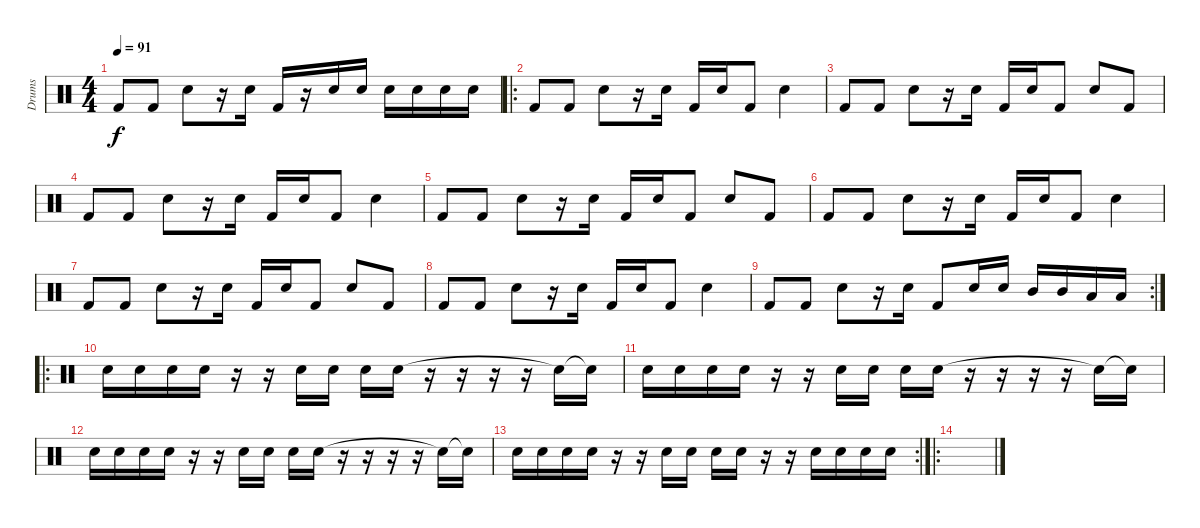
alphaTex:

\track ("Drums" "Drums") {instrument percussion}
\staff {score}
\articulation defaults
\ts (4 4)
\tempo 91
\clef neutral
\ks c "Kick (hit) 2".8{dy f} "Kick (hit) 2".8 "Snare (hit) 2".8
r.16 "Snare (hit) 2".16 "Kick (hit) 2".16 r.16 "Snare (hit) 2".16 "Snare (hit) 2".16 "Snare (hit) 2".16 "Snare (hit) 2".16 "Snare (hit) 2".16 "Snare (hit) 2".16 |
\ro "Kick (hit) 2".8 "Kick (hit) 2".8 "Snare (hit) 2".8
r.16 "Snare (hit) 2".16 "Kick (hit) 2".16 "Snare (hit) 2".16 "Kick (hit) 2".8 "Snare (hit) 2".4 |
"Kick (hit) 2".8 "Kick (hit) 2".8 "Snare (hit) 2".8 r.16 "Snare (hit) 2".16 "Kick (hit) 2".16 "Snare (hit) 2".16 "Kick (hit) 2".8 "Snare (hit) 2".8 "Kick (hit) 2".8 |
"Kick (hit) 2".8 "Kick (hit) 2".8 "Snare (hit) 2".8 r.16 "Snare (hit) 2".16 "Kick (hit) 2".16 "Snare (hit) 2".16 "Kick (hit) 2".8 "Snare (hit) 2".4 |
"Kick (hit) 2".8 "Kick (hit) 2".8 "Snare (hit) 2".8 r.16 "Snare (hit) 2".16 "Kick (hit) 2".16 "Snare (hit) 2".16 "Kick (hit) 2".8 "Snare (hit) 2".8 "Kick (hit) 2".8 |
"Kick (hit) 2".8 "Kick (hit) 2".8 "Snare (hit) 2".8 r.16 "Snare (hit) 2".16 "Kick (hit) 2".16 "Snare (hit) 2".16 "Kick (hit) 2".8 "Snare (hit) 2".4 |
"Kick (hit) 2".8 "Kick (hit) 2".8 "Snare (hit) 2".8 r.16 "Snare (hit) 2".16 "Kick (hit) 2".16 "Snare (hit) 2".16 "Kick (hit) 2".8 "Snare (hit) 2".8 "Kick (hit) 2".8 |
"Kick (hit) 2".8 "Kick (hit) 2".8 "Snare (hit) 2".8 r.16 "Snare (hit) 2".16 "Kick (hit) 2".16 "Snare (hit) 2".16 "Kick (hit) 2".8 "Snare (hit) 2".4 |
\rc 2 "Kick (hit) 2".8 "Kick (hit) 2".8 "Snare (hit) 2".8
r.16 "Snare (hit) 2".16 "Kick (hit) 2".8 "Snare (hit) 2".16 "Snare (hit) 2".16 "Mid Tom (hit)".16 "Mid Tom (hit)".16 "Low Tom (hit)".16 "Low Tom (hit)".16 |
\ro "Snare (hit) 2".16 "Snare (hit) 2".16 "Snare (hit) 2".16 "Snare (hit) 2".16
r.16 r.16 "Snare (hit) 2".16 "Snare (hit) 2".16 "Snare (hit) 2".16 "Snare (hit) 2".16 r.16 r.16 r.16 r.16 "Snare (hit)"{t}.16 "Snare (hit)"{t}.16 |
"Snare (hit) 2".16 "Snare (hit) 2".16 "Snare (hit) 2".16 "Snare (hit) 2".16 r.16 r.16 "Snare (hit) 2".16 "Snare (hit) 2".16 "Snare (hit) 2".16 "Snare (hit) 2".16 r.16 r.16 r.16 r.16 "Snare (hit)"{t}.16 "Snare (hit)"{t}.16 |
"Snare (hit) 2".16 "Snare (hit) 2".16 "Snare (hit) 2".16 "Snare (hit) 2".16 r.16 r.16 "Snare (hit) 2".16 "Snare (hit) 2".16 "Snare (hit) 2".16 "Snare (hit) 2".16 r.16 r.16 r.16 r.16 "Snare (hit)"{t}.16 "Snare (hit)"{t}.16 |
\rc 2 "Snare (hit) 2".16 "Snare (hit) 2".16 "Snare (hit) 2".16 "Snare (hit) 2".16
r.16 r.16 "Snare (hit) 2".16 "Snare (hit) 2".16 "Snare (hit) 2".16 "Snare (hit) 2".16 r.16 r.16 "Snare (hit) 2".16 "Snare (hit) 2".16 "Snare (hit) 2".16 "Snare (hit) 2".16 |
\ro
